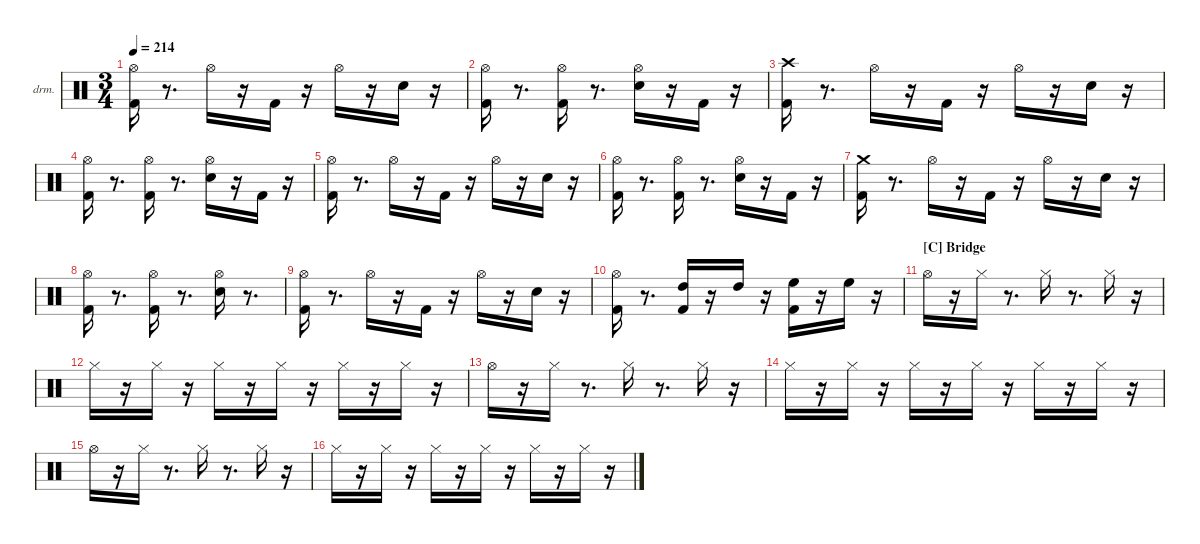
\hideDynamics
\bracketExtendMode nobrackets
\firstSystemTrackNameOrientation horizontal
\otherSystemsTrackNameOrientation horizontal
\track ("EZdrummer 3" "drm.") {instrument percussion}
\staff {score}
\articulation defaults
\ts (3 4)
\tempo 214
\clef neutral
\ks aminor
("Kick (hit) 2" "Hi-Hat (open)"{acc #}).16{dy fff beam Down} r.8{d beam Down} "Hi-Hat (open)"{acc #}.16{dy mf beam Down} r.16{beam Down} "Kick (hit) 2".16{dy ff beam Up} r.16{beam Up} "Hi-Hat (open)"{acc #}.16{dy f beam Down} r.16{beam Down} "Snare (hit) 2".16{dy ff beam Down} r.16{beam Down} |
("Kick (hit) 2" "Hi-Hat (open)"{acc #}).16{dy fff beam Down} r.8{d beam Down} ("Kick (hit) 2" "Hi-Hat (open)"{acc #}).16{dy ff beam Down} r.8{d beam Down} ("Snare (hit) 2" "Hi-Hat (open)"{acc #}).16{dy f beam Down} r.16{beam Down} "Kick (hit) 2".16{dy mp beam Up} r.16{beam Up} |
("Kick (hit) 2" "Crash high (hit)"{acc #}).16{dy fff beam Down} r.8{d beam Down} "Hi-Hat (open)"{acc #}.16{dy mf beam Down} r.16{beam Down} "Kick (hit) 2".16{dy ff beam Up} r.16{beam Up} "Hi-Hat (open)"{acc #}.16{dy f beam Down} r.16{beam Down} "Snare (hit) 2".16{dy ff beam Down} r.16{beam Down} |
("Kick (hit) 2" "Hi-Hat (open)"{acc #}).16{dy fff beam Down} r.8{d beam Down} ("Kick (hit) 2" "Hi-Hat (open)"{acc #}).16{dy mf beam Down} r.8{d beam Down} ("Snare (hit) 2" "Hi-Hat (open)"{acc #}).16{dy f beam Down} r.16{beam Down} "Kick (hit) 2".16{dy mp beam Up} r.16{beam Up} |
("Kick (hit) 2" "Hi-Hat (open)"{acc #}).16{dy fff beam Down} r.8{d beam Down} "Hi-Hat (open)"{acc #}.16{dy mf beam Down} r.16{beam Down} "Kick (hit) 2".16{dy ff beam Up} r.16{beam Up} "Hi-Hat (open)"{acc #}.16{dy f beam Down} r.16{beam Down} "Snare (hit) 2".16{dy ff beam Down} r.16{beam Down} |
("Kick (hit) 2" "Hi-Hat (open)"{acc #}).16{dy fff beam Down} r.8{d beam Down} ("Kick (hit) 2" "Hi-Hat (open)"{acc #}).16{dy ff beam Down} r.8{d beam Down} ("Snare (hit) 2" "Hi-Hat (open)"{acc #}).16{dy f beam Down} r.16{beam Down} "Kick (hit) 2".16{dy mp beam Up} r.16{beam Up} |
("Kick (hit) 2" "Crash medium (hit)").16{dy fff beam Down} r.8{d beam Down} "Hi-Hat (open)"{acc #}.16{dy mf beam Down} r.16{beam Down} "Kick (hit) 2".16{dy f beam Up} r.16{beam Up} "Hi-Hat (open)"{acc #}.16{beam Down} r.16{beam Down} "Snare (hit) 2".16{dy ff beam Down} r.16{beam Down} |
("Kick (hit) 2" "Hi-Hat (open)"{acc #}).16{dy fff beam Down} r.8{d beam Down} ("Kick (hit) 2" "Hi-Hat (open)"{acc #}).16{dy mf beam Down} r.8{d beam Down} ("Snare (hit) 2" "Hi-Hat (open)"{acc #}).16{dy f beam Down} r.8{d beam Down} |
("Kick (hit) 2" "Hi-Hat (open)"{acc #}).16{dy fff beam Down} r.8{d beam Down} "Hi-Hat (open)"{acc #}.16{dy mp beam Down} r.16{beam Down} "Kick (hit) 2".16{dy f beam Up} r.16{beam Up} "Hi-Hat (open)"{acc #}.16{beam Down} r.16{beam Down} "Snare (hit) 2".16{dy ff beam Down} r.16{beam Down} |
("Kick (hit) 2" "Hi-Hat (open)"{acc #}).16{dy fff beam Down} r.8{d beam Down} ("Kick (hit) 2" "High Tom (hit)").16{dy mf beam Up} r.16{beam Up} "High Tom (hit)".16{dy mp beam Down} r.16{beam Down} ("Kick (hit) 2" "High Floor Tom (hit)").16{dy ff beam Down} r.16{beam Down} "High Floor Tom (hit)".16{dy mp beam Down} r.16{beam Down} |
\section ("C" "Bridge")
"Hi-Hat (open)"{acc #}.16{dy fff beam Down} r.16{beam Down} "Hi-Hat (closed)"{acc #}.16{dy ff beam Down} r.8{d beam Down} "Hi-Hat (closed)"{acc #}.16{dy mp beam Down} r.8{d beam Down} "Hi-Hat (closed)"{acc #}.16{dy mf beam Down} r.16{beam Down} |
"Hi-Hat (closed)"{acc #}.16{dy ff beam Down} r.16{beam Down} "Hi-Hat (closed)"{acc #}.16{dy ppp beam Down} r.16{beam Down} "Hi-Hat (closed)"{acc #}.16{dy mp beam Down} r.16{beam Down} "Hi-Hat (closed)"{acc #}.16{dy ppp beam Down} r.16{beam Down} "Hi-Hat (closed)"{acc #}.16{dy mp beam Down} r.16{beam Down} "Hi-Hat (closed)"{acc #}.16{dy ppp beam Down} r.16{beam Down} |
"Hi-Hat (open)"{acc #}.16{dy fff beam Down} r.16{beam Down} "Hi-Hat (closed)"{acc #}.16{dy ff beam Down} r.8{d beam Down} "Hi-Hat (closed)"{acc #}.16{dy mp beam Down} r.8{d beam Down} "Hi-Hat (closed)"{acc #}.16{dy mf beam Down} r.16{beam Down} |
"Hi-Hat (closed)"{acc #}.16{dy ff beam Down} r.16{beam Down} "Hi-Hat (closed)"{acc #}.16{dy ppp beam Down} r.16{beam Down} "Hi-Hat (closed)"{acc #}.16{dy mp beam Down} r.16{beam Down} "Hi-Hat (closed)"{acc #}.16{dy ppp beam Down} r.16{beam Down} "Hi-Hat (closed)"{acc #}.16{dy mp beam Down} r.16{beam Down} "Hi-Hat (closed)"{acc #}.16{dy ppp beam Down} r.16{beam Down} |
"Hi-Hat (open)"{acc #}.16{dy fff beam Down} r.16{beam Down} "Hi-Hat (closed)"{acc #}.16{dy ff beam Down} r.8{d beam Down} "Hi-Hat (closed)"{acc #}.16{dy mp beam Down} r.8{d beam Down} "Hi-Hat (closed)"{acc #}.16{dy mf beam Down} r.16{beam Down} |
"Hi-Hat (closed)"{acc #}.16{dy ff beam Down} r.16{beam Down} "Hi-Hat (closed)"{acc #}.16{dy ppp beam Down} r.16{beam Down} "Hi-Hat (closed)"{acc #}.16{dy mp beam Down} r.16{beam Down} "Hi-Hat (closed)"{acc #}.16{dy ppp beam Down} r.16{beam Down} "Hi-Hat (closed)"{acc #}.16{dy mp beam Down} r.16{beam Down} "Hi-Hat (closed)"{acc #}.16{dy ppp beam Down} r.16{beam Down}
